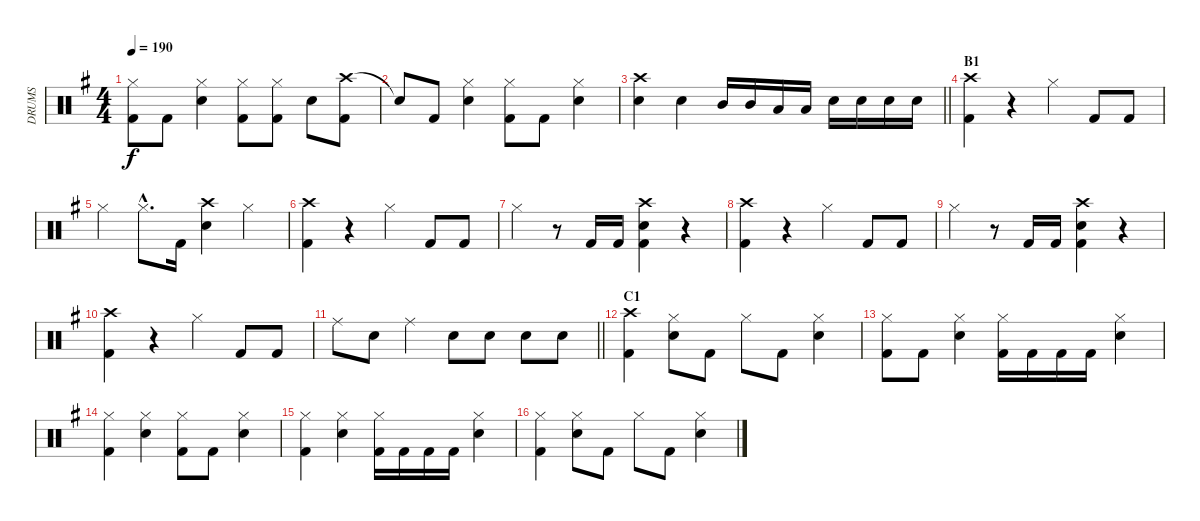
\track ("DRUMS" "DRUMS") {instrument percussion}
\staff {score}
\articulation defaults
\ts (4 4)
\tempo 190
\clef neutral
\ks g
("Hi-Hat (closed)" "Kick (hit) 2").8{dy f} "Kick (hit) 2".8 ("Hi-Hat (closed)" "Snare (hit) 2").4 ("Hi-Hat (closed)" "Kick (hit) 2").8 ("Hi-Hat (closed)" "Kick (hit) 2").8 "Snare (hit) 2".8 ("Crash high (hit)" "Kick (hit) 2").8 |
"Snare (hit)"{t}.8 "Kick (hit) 2".8 ("Hi-Hat (closed)" "Snare (hit) 2").4 ("Hi-Hat (closed)" "Kick (hit) 2").8 "Kick (hit) 2".8 ("Hi-Hat (closed)" "Snare (hit) 2").4 |
\barLineRight lightlight
("Crash high (hit)" "Snare (hit) 2").4 "Snare (hit) 2".4 "Mid Tom (hit)".16 "Mid Tom (hit)".16 "Low Tom (hit)".16 "Low Tom (hit)".16 "Snare (hit) 2".16 "Snare (hit) 2".16 "Snare (hit) 2".16 "Snare (hit) 2".16 |
\section ("" "B1")
("Crash high (hit)" "Kick (hit) 2").4 r.4 "Hi-Hat (closed)".4 "Kick (hit) 2".8 "Kick (hit) 2".8 |
"Hi-Hat (closed)".4 "Hi-Hat (closed)"{hac}.8{d} "Kick (hit) 2".16 ("Crash high (hit)" "Snare (hit) 2").4 "Hi-Hat (closed)".4 |
("Crash high (hit)" "Kick (hit) 2").4 r.4 "Hi-Hat (closed)".4 "Kick (hit) 2".8 "Kick (hit) 2".8 |
"Hi-Hat (closed)".4 r.8 "Kick (hit) 2".16 "Kick (hit) 2".16 ("Crash high (hit)" "Snare (hit) 2" "Kick (hit) 2").4 r.4 |
("Crash high (hit)" "Kick (hit) 2").4 r.4 "Hi-Hat (closed)".4 "Kick (hit) 2".8 "Kick (hit) 2".8 |
"Hi-Hat (closed)".4 r.8 "Kick (hit) 2".16 "Kick (hit) 2".16 ("Crash high (hit)" "Snare (hit) 2" "Kick (hit) 2").4 r.4 |
("Crash high (hit)" "Kick (hit) 2").4 r.4 "Hi-Hat (closed)".4 "Kick (hit) 2".8 "Kick (hit) 2".8 |
\barLineRight lightlight "Ride (middle)".8 "Snare (hit) 2".8 "Ride (middle)".4 "Snare (hit) 2".8 "Snare (hit) 2".8 "Snare (hit) 2".8 "Snare (hit) 2".8
|
\section ("" "C1")
("Crash high (hit)" "Kick (hit) 2").4 ("Hi-Hat (closed)" "Snare (hit) 2").8 "Kick (hit) 2".8 "Hi-Hat (closed)".8 "Kick (hit) 2".8 ("Hi-Hat (closed)" "Snare (hit) 2").4 |
("Hi-Hat (closed)" "Kick (hit) 2").8 "Kick (hit) 2".8 ("Hi-Hat (closed)" "Snare (hit) 2").4 ("Hi-Hat (closed)" "Kick (hit) 2").16 "Kick (hit) 2".16 "Kick (hit) 2".16 "Kick (hit) 2".16 ("Hi-Hat (closed)" "Snare (hit) 2").4 |
("Hi-Hat (closed)" "Kick (hit) 2").4 ("Hi-Hat (closed)" "Snare (hit) 2").4 ("Hi-Hat (closed)" "Kick (hit) 2").8 "Kick (hit) 2".8 ("Hi-Hat (closed)" "Snare (hit) 2").4 |
("Hi-Hat (closed)" "Kick (hit) 2").4 ("Hi-Hat (closed)" "Snare (hit) 2").4 ("Hi-Hat (closed)" "Kick (hit) 2").16 "Kick (hit) 2".16 "Kick (hit) 2".16 "Kick (hit) 2".16 ("Hi-Hat (closed)" "Snare (hit) 2").4 |
("Hi-Hat (closed)" "Kick (hit) 2").4 ("Hi-Hat (closed)" "Snare (hit) 2").8 "Kick (hit) 2".8 "Hi-Hat (closed)".8 "Kick (hit) 2".8 ("Hi-Hat (closed)" "Snare (hit) 2").4
